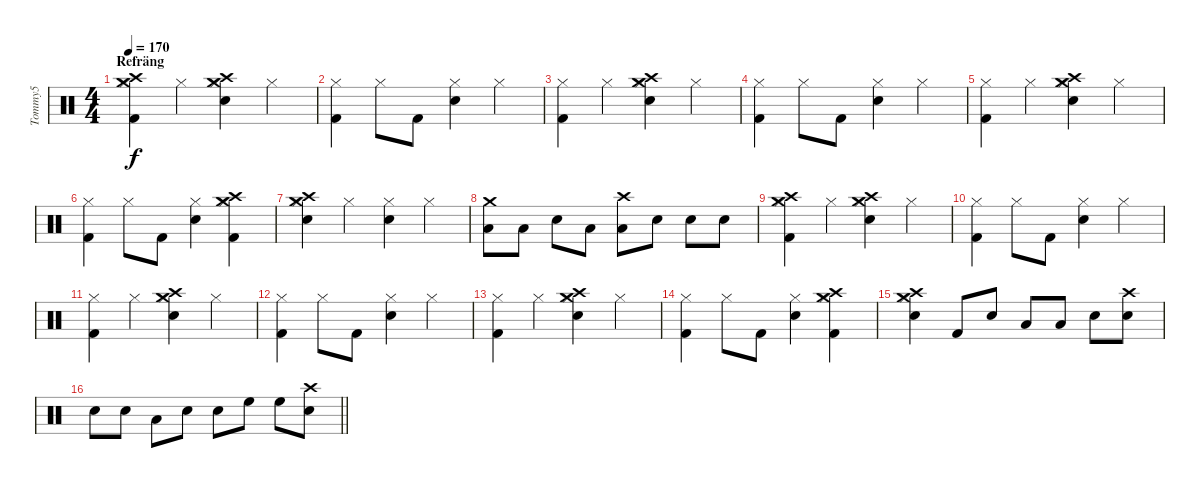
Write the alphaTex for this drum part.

\track ("Tommy5" "Tommy5") {instrument percussion}
\staff {score}
\articulation defaults
\ts (4 4)
\section ("" "Refräng")
\tempo 170
\clef neutral
\ks c
("Hi-Hat (closed)" "Kick (hit) 2" "Crash high (hit)" "Crash medium (hit)").4{dy f} "Hi-Hat (closed)".4 ("Hi-Hat (closed)" "Electric Snare (hit)" "Crash high (hit)" "Crash medium (hit)").4 "Hi-Hat (closed)".4 |
("Hi-Hat (closed)" "Kick (hit) 2").4 "Hi-Hat (closed)".8 "Kick (hit) 2".8 ("Hi-Hat (closed)" "Electric Snare (hit)").4 "Hi-Hat (closed)".4 |
("Hi-Hat (closed)" "Kick (hit) 2").4 "Hi-Hat (closed)".4 ("Hi-Hat (closed)" "Electric Snare (hit)" "Crash high (hit)" "Crash medium (hit)").4 "Hi-Hat (closed)".4 |
("Hi-Hat (closed)" "Kick (hit) 2").4 "Hi-Hat (closed)".8 "Kick (hit) 2".8 ("Hi-Hat (closed)" "Electric Snare (hit)").4 "Hi-Hat (closed)".4 |
("Hi-Hat (closed)" "Kick (hit) 2").4 "Hi-Hat (closed)".4 ("Hi-Hat (closed)" "Electric Snare (hit)" "Crash high (hit)" "Crash medium (hit)").4 "Hi-Hat (closed)".4 |
("Hi-Hat (closed)" "Kick (hit) 2").4 "Hi-Hat (closed)".8 "Kick (hit) 2".8 ("Hi-Hat (closed)" "Electric Snare (hit)").4 ("Hi-Hat (closed)" "Kick (hit) 2" "Crash high (hit)" "Crash medium (hit)").4 |
("Hi-Hat (closed)" "Electric Snare (hit)" "Crash high (hit)" "Crash medium (hit)").4 "Hi-Hat (closed)".4 ("Hi-Hat (closed)" "Electric Snare (hit)").4 "Hi-Hat (closed)".4 |
("Low Tom (hit)" "Crash medium (hit)").8 "Low Tom (hit)".8 "Electric Snare (hit)".8 "Low Tom (hit)".8 ("Low Tom (hit)" "Crash high (hit)").8 "Snare (hit) 2".8 "Electric Snare (hit)".8 "Snare (hit) 2".8 |
("Hi-Hat (closed)" "Kick (hit) 2" "Crash high (hit)" "Crash medium (hit)").4 "Hi-Hat (closed)".4 ("Hi-Hat (closed)" "Electric Snare (hit)" "Crash high (hit)" "Crash medium (hit)").4 "Hi-Hat (closed)".4 |
("Hi-Hat (closed)" "Kick (hit) 2").4 "Hi-Hat (closed)".8 "Kick (hit) 2".8 ("Hi-Hat (closed)" "Electric Snare (hit)").4 "Hi-Hat (closed)".4 |
("Hi-Hat (closed)" "Kick (hit) 2").4 "Hi-Hat (closed)".4 ("Hi-Hat (closed)" "Electric Snare (hit)" "Crash high (hit)" "Crash medium (hit)").4 "Hi-Hat (closed)".4 |
("Hi-Hat (closed)" "Kick (hit) 2").4 "Hi-Hat (closed)".8 "Kick (hit) 2".8 ("Hi-Hat (closed)" "Electric Snare (hit)").4 "Hi-Hat (closed)".4 |
("Hi-Hat (closed)" "Kick (hit) 2").4 "Hi-Hat (closed)".4 ("Hi-Hat (closed)" "Electric Snare (hit)" "Crash high (hit)" "Crash medium (hit)").4 "Hi-Hat (closed)".4 |
("Hi-Hat (closed)" "Kick (hit) 2").4 "Hi-Hat (closed)".8 "Kick (hit) 2".8 ("Hi-Hat (closed)" "Electric Snare (hit)").4 ("Hi-Hat (closed)" "Kick (hit) 2" "Crash high (hit)" "Crash medium (hit)").4 |
("Hi-Hat (closed)" "Electric Snare (hit)" "Crash high (hit)" "Crash medium (hit)").4 "Kick (hit) 2".8 "Electric Snare (hit)".8 "Low Tom (hit)".8 "Low Tom (hit)".8 "Electric Snare (hit)".8 ("Electric Snare (hit)" "Crash high (hit)").8 |
\barLineRight lightlight "Electric Snare (hit)".8 "Electric Snare (hit)".8 "Low Tom (hit)".8 "Snare (hit) 2".8 "Snare (hit) 2".8 "High Floor Tom (hit)".8 "High Floor Tom (hit)".8
("Electric Snare (hit)" "Crash high (hit)").8
